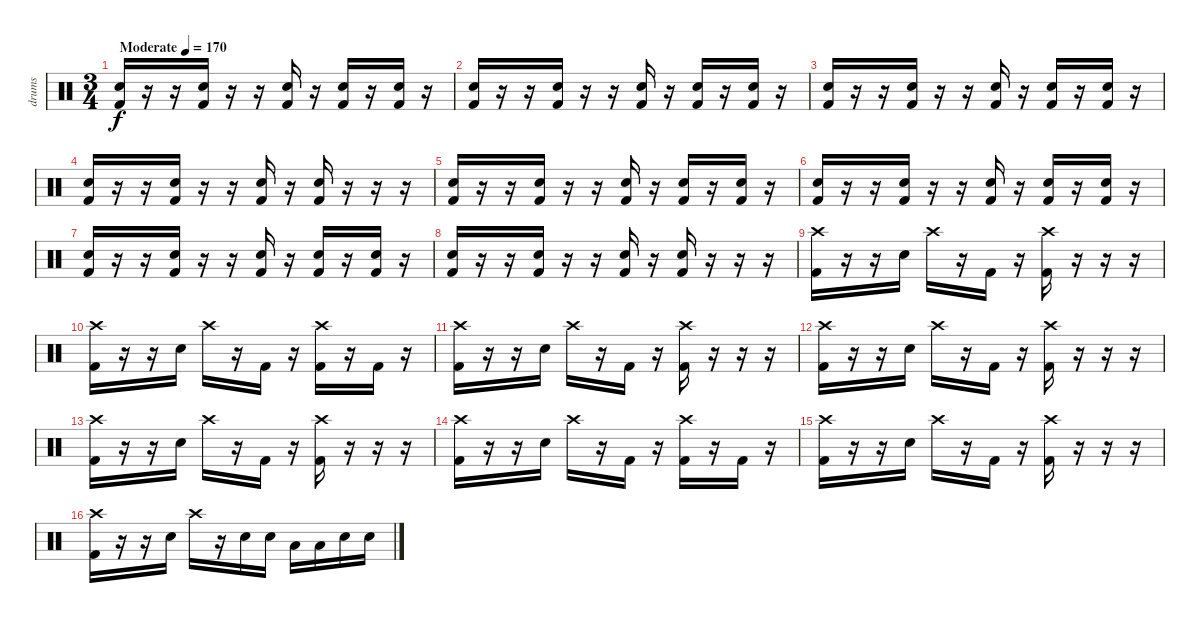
\track ("drums" "drums") {instrument percussion}
\staff {score}
\articulation defaults
\ts (3 4)
\tempo (170 "Moderate")
\clef neutral
\ks c
("Snare (hit) 2" "Kick (hit) 2").16{dy f volume 9} r.16 r.16 ("Snare (hit) 2" "Kick (hit) 2").16 r.16 r.16 ("Snare (hit) 2" "Kick (hit) 2").16 r.16 ("Snare (hit) 2" "Kick (hit) 2").16 r.16 ("Snare (hit) 2" "Kick (hit) 2").16 r.16 |
("Snare (hit) 2" "Kick (hit) 2").16 r.16 r.16 ("Snare (hit) 2" "Kick (hit) 2").16 r.16 r.16 ("Snare (hit) 2" "Kick (hit) 2").16 r.16 ("Snare (hit) 2" "Kick (hit) 2").16 r.16 ("Snare (hit) 2" "Kick (hit) 2").16 r.16 |
("Snare (hit) 2" "Kick (hit) 2").16 r.16 r.16 ("Snare (hit) 2" "Kick (hit) 2").16 r.16 r.16 ("Snare (hit) 2" "Kick (hit) 2").16 r.16 ("Snare (hit) 2" "Kick (hit) 2").16 r.16 ("Snare (hit) 2" "Kick (hit) 2").16 r.16 |
("Snare (hit) 2" "Kick (hit) 2").16 r.16 r.16 ("Snare (hit) 2" "Kick (hit) 2").16 r.16 r.16 ("Snare (hit) 2" "Kick (hit) 2").16 r.16 ("Snare (hit) 2" "Kick (hit) 2").16 r.16 r.16 r.16 |
("Snare (hit) 2" "Kick (hit) 2").16 r.16 r.16 ("Snare (hit) 2" "Kick (hit) 2").16 r.16 r.16 ("Snare (hit) 2" "Kick (hit) 2").16 r.16 ("Snare (hit) 2" "Kick (hit) 2").16 r.16 ("Snare (hit) 2" "Kick (hit) 2").16 r.16 |
("Snare (hit) 2" "Kick (hit) 2").16 r.16 r.16 ("Snare (hit) 2" "Kick (hit) 2").16 r.16 r.16 ("Snare (hit) 2" "Kick (hit) 2").16 r.16 ("Snare (hit) 2" "Kick (hit) 2").16 r.16 ("Snare (hit) 2" "Kick (hit) 2").16 r.16 |
("Snare (hit) 2" "Kick (hit) 2").16 r.16 r.16 ("Snare (hit) 2" "Kick (hit) 2").16 r.16 r.16 ("Snare (hit) 2" "Kick (hit) 2").16 r.16 ("Snare (hit) 2" "Kick (hit) 2").16 r.16 ("Snare (hit) 2" "Kick (hit) 2").16 r.16 |
("Snare (hit) 2" "Kick (hit) 2").16 r.16 r.16 ("Snare (hit) 2" "Kick (hit) 2").16 r.16 r.16 ("Snare (hit) 2" "Kick (hit) 2").16 r.16 ("Snare (hit) 2" "Kick (hit) 2").16{volume 13} r.16 r.16 r.16 |
("Kick (hit) 2" "Crash high (hit)").16 r.16 r.16 "Snare (hit) 2".16 "Crash high (hit)".16 r.16 "Kick (hit) 2".16 r.16 ("Crash high (hit)" "Kick (hit) 2").16 r.16 r.16 r.16 |
("Kick (hit) 2" "Crash high (hit)").16 r.16 r.16 "Snare (hit) 2".16 "Crash high (hit)".16 r.16 "Kick (hit) 2".16 r.16 ("Crash high (hit)" "Kick (hit) 2").16 r.16 "Kick (hit) 2".16 r.16 |
("Kick (hit) 2" "Crash high (hit)").16 r.16 r.16 "Snare (hit) 2".16 "Crash high (hit)".16 r.16 "Kick (hit) 2".16 r.16 ("Crash high (hit)" "Kick (hit) 2").16 r.16 r.16 r.16 |
("Kick (hit) 2" "Crash high (hit)").16 r.16 r.16 "Snare (hit) 2".16 "Crash high (hit)".16 r.16 "Kick (hit) 2".16 r.16 ("Crash high (hit)" "Kick (hit) 2").16 r.16 r.16 r.16 |
("Kick (hit) 2" "Crash high (hit)").16 r.16 r.16 "Snare (hit) 2".16 "Crash high (hit)".16 r.16 "Kick (hit) 2".16 r.16 ("Crash high (hit)" "Kick (hit) 2").16 r.16 r.16 r.16 |
("Kick (hit) 2" "Crash high (hit)").16 r.16 r.16 "Snare (hit) 2".16 "Crash high (hit)".16 r.16 "Kick (hit) 2".16 r.16 ("Crash high (hit)" "Kick (hit) 2").16 r.16 "Kick (hit) 2".16 r.16 |
("Kick (hit) 2" "Crash high (hit)").16 r.16 r.16 "Snare (hit) 2".16 "Crash high (hit)".16 r.16 "Kick (hit) 2".16 r.16 ("Crash high (hit)" "Kick (hit) 2").16 r.16 r.16 r.16 |
("Kick (hit) 2" "Crash high (hit)").16 r.16 r.16 "Snare (hit) 2".16 "Crash high (hit)".16 r.16 "Snare (hit) 2".16 "Snare (hit) 2".16 "Low Floor Tom (hit)".16 "Low Floor Tom (hit)".16 "Snare (hit) 2".16 "Snare (hit) 2".16
